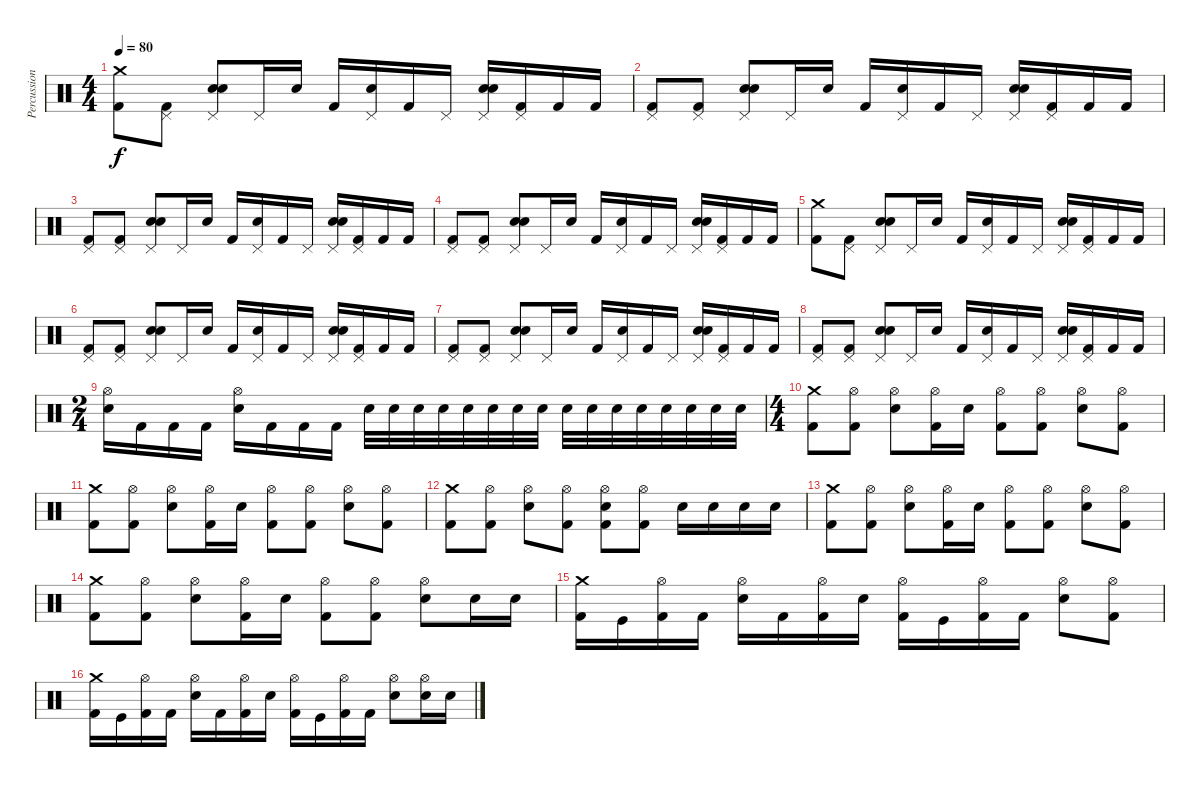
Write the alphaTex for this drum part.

\track ("Percussions" "Percussion") {instrument percussion}
\staff {score}
\articulation defaults
\ts (4 4)
\tempo 80
\clef neutral
\ks c
("Crash medium (hit)" "Kick (hit) 2").8{dy f} ("Pedal Hi-Hat (hit)" "Kick (hit) 2").8 ("Pedal Hi-Hat (hit)" "Snare (hit) 2" "Snare (hit) 2").8 "Pedal Hi-Hat (hit)".16 "Snare (hit) 2".16 "Kick (hit) 2".16 ("Pedal Hi-Hat (hit)" "Snare (hit) 2").16 "Kick (hit) 2".16 "Pedal Hi-Hat (hit)".16 ("Pedal Hi-Hat (hit)" "Snare (hit) 2" "Snare (hit) 2").16 ("Pedal Hi-Hat (hit)" "Kick (hit) 2").16 "Kick (hit) 2".16 "Kick (hit) 2".16 |
("Pedal Hi-Hat (hit)" "Kick (hit) 2").8 ("Pedal Hi-Hat (hit)" "Kick (hit) 2").8 ("Pedal Hi-Hat (hit)" "Snare (hit) 2" "Snare (hit) 2").8 "Pedal Hi-Hat (hit)".16 "Snare (hit) 2".16 "Kick (hit) 2".16 ("Pedal Hi-Hat (hit)" "Snare (hit) 2").16 "Kick (hit) 2".16 "Pedal Hi-Hat (hit)".16 ("Pedal Hi-Hat (hit)" "Snare (hit) 2" "Snare (hit) 2").16 ("Pedal Hi-Hat (hit)" "Kick (hit) 2").16 "Kick (hit) 2".16 "Kick (hit) 2".16 |
("Pedal Hi-Hat (hit)" "Kick (hit) 2").8 ("Pedal Hi-Hat (hit)" "Kick (hit) 2").8 ("Pedal Hi-Hat (hit)" "Snare (hit) 2" "Snare (hit) 2").8 "Pedal Hi-Hat (hit)".16 "Snare (hit) 2".16 "Kick (hit) 2".16 ("Pedal Hi-Hat (hit)" "Snare (hit) 2").16 "Kick (hit) 2".16 "Pedal Hi-Hat (hit)".16 ("Pedal Hi-Hat (hit)" "Snare (hit) 2" "Snare (hit) 2").16 ("Pedal Hi-Hat (hit)" "Kick (hit) 2").16 "Kick (hit) 2".16 "Kick (hit) 2".16 |
("Pedal Hi-Hat (hit)" "Kick (hit) 2").8 ("Pedal Hi-Hat (hit)" "Kick (hit) 2").8 ("Pedal Hi-Hat (hit)" "Snare (hit) 2" "Snare (hit) 2").8 "Pedal Hi-Hat (hit)".16 "Snare (hit) 2".16 "Kick (hit) 2".16 ("Pedal Hi-Hat (hit)" "Snare (hit) 2").16 "Kick (hit) 2".16 "Pedal Hi-Hat (hit)".16 ("Pedal Hi-Hat (hit)" "Snare (hit) 2" "Snare (hit) 2").16 ("Pedal Hi-Hat (hit)" "Kick (hit) 2").16 "Kick (hit) 2".16 "Kick (hit) 2".16 |
("Crash medium (hit)" "Kick (hit) 2").8 ("Pedal Hi-Hat (hit)" "Kick (hit) 2").8 ("Pedal Hi-Hat (hit)" "Snare (hit) 2" "Snare (hit) 2").8 "Pedal Hi-Hat (hit)".16 "Snare (hit) 2".16 "Kick (hit) 2".16 ("Pedal Hi-Hat (hit)" "Snare (hit) 2").16 "Kick (hit) 2".16 "Pedal Hi-Hat (hit)".16 ("Pedal Hi-Hat (hit)" "Snare (hit) 2" "Snare (hit) 2").16 ("Pedal Hi-Hat (hit)" "Kick (hit) 2").16 "Kick (hit) 2".16 "Kick (hit) 2".16 |
("Pedal Hi-Hat (hit)" "Kick (hit) 2").8 ("Pedal Hi-Hat (hit)" "Kick (hit) 2").8 ("Pedal Hi-Hat (hit)" "Snare (hit) 2" "Snare (hit) 2").8 "Pedal Hi-Hat (hit)".16 "Snare (hit) 2".16 "Kick (hit) 2".16 ("Pedal Hi-Hat (hit)" "Snare (hit) 2").16 "Kick (hit) 2".16 "Pedal Hi-Hat (hit)".16 ("Pedal Hi-Hat (hit)" "Snare (hit) 2" "Snare (hit) 2").16 ("Pedal Hi-Hat (hit)" "Kick (hit) 2").16 "Kick (hit) 2".16 "Kick (hit) 2".16 |
("Pedal Hi-Hat (hit)" "Kick (hit) 2").8 ("Pedal Hi-Hat (hit)" "Kick (hit) 2").8 ("Pedal Hi-Hat (hit)" "Snare (hit) 2" "Snare (hit) 2").8 "Pedal Hi-Hat (hit)".16 "Snare (hit) 2".16 "Kick (hit) 2".16 ("Pedal Hi-Hat (hit)" "Snare (hit) 2").16 "Kick (hit) 2".16 "Pedal Hi-Hat (hit)".16 ("Pedal Hi-Hat (hit)" "Snare (hit) 2" "Snare (hit) 2").16 ("Pedal Hi-Hat (hit)" "Kick (hit) 2").16 "Kick (hit) 2".16 "Kick (hit) 2".16 |
("Pedal Hi-Hat (hit)" "Kick (hit) 2").8 ("Pedal Hi-Hat (hit)" "Kick (hit) 2").8 ("Pedal Hi-Hat (hit)" "Snare (hit) 2" "Snare (hit) 2").8 "Pedal Hi-Hat (hit)".16 "Snare (hit) 2".16 "Kick (hit) 2".16 ("Pedal Hi-Hat (hit)" "Snare (hit) 2").16 "Kick (hit) 2".16 "Pedal Hi-Hat (hit)".16 ("Pedal Hi-Hat (hit)" "Snare (hit) 2" "Snare (hit) 2").16 ("Pedal Hi-Hat (hit)" "Kick (hit) 2").16 "Kick (hit) 2".16 "Kick (hit) 2".16 |
\ts (2 4)
("Hi-Hat (open)" "Snare (hit) 2").16 "Kick (hit) 2".16 "Kick (hit) 2".16 "Kick (hit) 2".16 ("Hi-Hat (open)" "Snare (hit) 2").16 "Kick (hit) 2".16 "Kick (hit) 2".16 "Kick (hit) 2".16 "Snare (hit) 2".32 "Snare (hit) 2".32 "Snare (hit) 2".32 "Snare (hit) 2".32 "Snare (hit) 2".32 "Snare (hit) 2".32 "Snare (hit) 2".32 "Snare (hit) 2".32 "Snare (hit) 2".32 "Snare (hit) 2".32 "Snare (hit) 2".32 "Snare (hit) 2".32 "Snare (hit) 2".32 "Snare (hit) 2".32 "Snare (hit) 2".32 "Snare (hit) 2".32 |
\ts (4 4)
("Crash medium (hit)" "Kick (hit) 2").8 ("Hi-Hat (open)" "Kick (hit) 2").8 ("Hi-Hat (open)" "Snare (hit) 2").8 ("Hi-Hat (open)" "Kick (hit) 2").16 "Snare (hit) 2".16 ("Hi-Hat (open)" "Kick (hit) 2").8 ("Hi-Hat (open)" "Kick (hit) 2").8 ("Hi-Hat (open)" "Snare (hit) 2").8 ("Hi-Hat (open)" "Kick (hit) 2").8 |
("Crash medium (hit)" "Kick (hit) 2").8 ("Hi-Hat (open)" "Kick (hit) 2").8 ("Hi-Hat (open)" "Snare (hit) 2").8 ("Hi-Hat (open)" "Kick (hit) 2").16 "Snare (hit) 2".16 ("Hi-Hat (open)" "Kick (hit) 2").8 ("Hi-Hat (open)" "Kick (hit) 2").8 ("Hi-Hat (open)" "Snare (hit) 2").8 ("Hi-Hat (open)" "Kick (hit) 2").8 |
("Crash medium (hit)" "Kick (hit) 2").8 ("Hi-Hat (open)" "Kick (hit) 2").8 ("Hi-Hat (open)" "Snare (hit) 2").8 ("Hi-Hat (open)" "Kick (hit) 2").8 ("Hi-Hat (open)" "Snare (hit) 2" "Kick (hit) 2").8 ("Hi-Hat (open)" "Kick (hit) 2").8 "Snare (hit) 2".16 "Snare (hit) 2".16 "Snare (hit) 2".16 "Snare (hit) 2".16 |
("Crash medium (hit)" "Kick (hit) 2").8 ("Hi-Hat (open)" "Kick (hit) 2").8 ("Hi-Hat (open)" "Snare (hit) 2").8 ("Hi-Hat (open)" "Kick (hit) 2").16 "Snare (hit) 2".16 ("Hi-Hat (open)" "Kick (hit) 2").8 ("Hi-Hat (open)" "Kick (hit) 2").8 ("Hi-Hat (open)" "Snare (hit) 2").8 ("Hi-Hat (open)" "Kick (hit) 2").8 |
("Crash medium (hit)" "Kick (hit) 2").8 ("Hi-Hat (open)" "Kick (hit) 2").8 ("Hi-Hat (open)" "Snare (hit) 2").8 ("Hi-Hat (open)" "Kick (hit) 2").16 "Snare (hit) 2".16 ("Hi-Hat (open)" "Kick (hit) 2").8 ("Hi-Hat (open)" "Kick (hit) 2").8 ("Hi-Hat (open)" "Snare (hit) 2").8 "Snare (hit) 2".16 "Snare (hit) 2".16 |
("Crash medium (hit)" "Kick (hit) 2").16 "Kick (hit)".16 ("Hi-Hat (open)" "Kick (hit) 2").16 "Kick (hit) 2".16 ("Hi-Hat (open)" "Snare (hit) 2").16 "Kick (hit) 2".16 ("Hi-Hat (open)" "Kick (hit) 2").16 "Snare (hit) 2".16 ("Hi-Hat (open)" "Kick (hit) 2").16 "Kick (hit)".16 ("Hi-Hat (open)" "Kick (hit) 2").16 "Kick (hit) 2".16 ("Hi-Hat (open)" "Snare (hit) 2").8 ("Hi-Hat (open)" "Kick (hit) 2").8 |
("Crash medium (hit)" "Kick (hit) 2").16 "Kick (hit)".16 ("Hi-Hat (open)" "Kick (hit) 2").16 "Kick (hit) 2".16 ("Hi-Hat (open)" "Snare (hit) 2").16 "Kick (hit) 2".16 ("Hi-Hat (open)" "Kick (hit) 2").16 "Snare (hit) 2".16 ("Hi-Hat (open)" "Kick (hit) 2").16 "Kick (hit)".16 ("Hi-Hat (open)" "Kick (hit) 2").16 "Kick (hit) 2".16 ("Hi-Hat (open)" "Snare (hit) 2").8 ("Hi-Hat (open)" "Snare (hit) 2").16 "Snare (hit) 2".16
